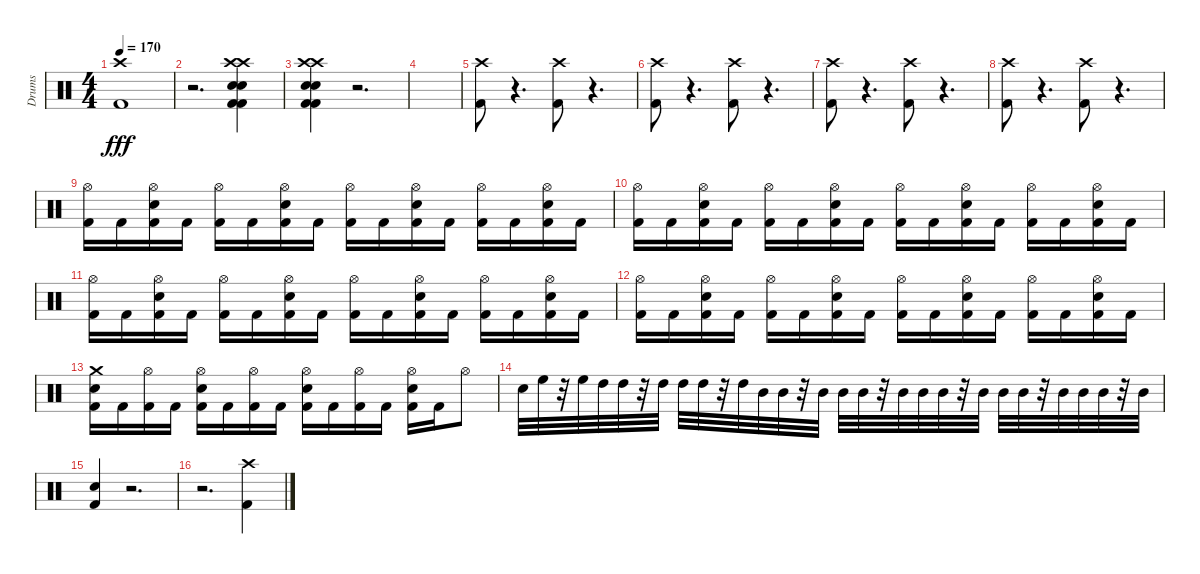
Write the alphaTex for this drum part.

\track ("Drums" "Drums") {instrument percussion}
\staff {score}
\articulation defaults
\ts (4 4)
\tempo 170
\clef neutral
\ks c
("Crash high (hit)" "Kick (hit) 2").1{dy fff} |
r.2{d} ("Crash high (hit)" "Crash high (hit)" "Snare (hit) 2" "Snare (hit) 2" "Kick (hit) 2" "Kick (hit) 2").4 |
("Crash high (hit)" "Crash high (hit)" "Snare (hit) 2" "Snare (hit) 2" "Kick (hit) 2" "Kick (hit) 2").4 r.2{d} |
|
("Crash high (hit)" "Kick (hit) 2").8 r.4{d} ("Crash high (hit)" "Kick (hit) 2").8 r.4{d} |
("Crash high (hit)" "Kick (hit) 2").8 r.4{d} ("Crash high (hit)" "Kick (hit) 2").8 r.4{d} |
("Crash high (hit)" "Kick (hit) 2").8 r.4{d} ("Crash high (hit)" "Kick (hit) 2").8 r.4{d} |
("Crash high (hit)" "Kick (hit) 2").8 r.4{d} ("Crash high (hit)" "Kick (hit) 2").8 r.4{d} |
("Kick (hit) 2" "Hi-Hat (open)").16 "Kick (hit) 2".16 ("Snare (hit) 2" "Kick (hit) 2" "Hi-Hat (open)").16 "Kick (hit) 2".16 ("Kick (hit) 2" "Hi-Hat (open)").16 "Kick (hit) 2".16 ("Snare (hit) 2" "Kick (hit) 2" "Hi-Hat (open)").16 "Kick (hit) 2".16 ("Kick (hit) 2" "Hi-Hat (open)").16 "Kick (hit) 2".16 ("Snare (hit) 2" "Kick (hit) 2" "Hi-Hat (open)").16 "Kick (hit) 2".16 ("Kick (hit) 2" "Hi-Hat (open)").16 "Kick (hit) 2".16 ("Snare (hit) 2" "Kick (hit) 2" "Hi-Hat (open)").16 "Kick (hit) 2".16 |
("Kick (hit) 2" "Hi-Hat (open)").16 "Kick (hit) 2".16 ("Snare (hit) 2" "Kick (hit) 2" "Hi-Hat (open)").16 "Kick (hit) 2".16 ("Kick (hit) 2" "Hi-Hat (open)").16 "Kick (hit) 2".16 ("Snare (hit) 2" "Kick (hit) 2" "Hi-Hat (open)").16 "Kick (hit) 2".16 ("Kick (hit) 2" "Hi-Hat (open)").16 "Kick (hit) 2".16 ("Snare (hit) 2" "Kick (hit) 2" "Hi-Hat (open)").16 "Kick (hit) 2".16 ("Kick (hit) 2" "Hi-Hat (open)").16 "Kick (hit) 2".16 ("Snare (hit) 2" "Kick (hit) 2" "Hi-Hat (open)").16 "Kick (hit) 2".16 |
("Kick (hit) 2" "Hi-Hat (open)").16 "Kick (hit) 2".16 ("Snare (hit) 2" "Kick (hit) 2" "Hi-Hat (open)").16 "Kick (hit) 2".16 ("Kick (hit) 2" "Hi-Hat (open)").16 "Kick (hit) 2".16 ("Snare (hit) 2" "Kick (hit) 2" "Hi-Hat (open)").16 "Kick (hit) 2".16 ("Kick (hit) 2" "Hi-Hat (open)").16 "Kick (hit) 2".16 ("Snare (hit) 2" "Kick (hit) 2" "Hi-Hat (open)").16 "Kick (hit) 2".16 ("Kick (hit) 2" "Hi-Hat (open)").16 "Kick (hit) 2".16 ("Snare (hit) 2" "Kick (hit) 2" "Hi-Hat (open)").16 "Kick (hit) 2".16 |
("Kick (hit) 2" "Hi-Hat (open)").16 "Kick (hit) 2".16 ("Snare (hit) 2" "Kick (hit) 2" "Hi-Hat (open)").16 "Kick (hit) 2".16 ("Kick (hit) 2" "Hi-Hat (open)").16 "Kick (hit) 2".16 ("Snare (hit) 2" "Kick (hit) 2" "Hi-Hat (open)").16 "Kick (hit) 2".16 ("Kick (hit) 2" "Hi-Hat (open)").16 "Kick (hit) 2".16 ("Snare (hit) 2" "Kick (hit) 2" "Hi-Hat (open)").16 "Kick (hit) 2".16 ("Kick (hit) 2" "Hi-Hat (open)").16 "Kick (hit) 2".16 ("Snare (hit) 2" "Kick (hit) 2" "Hi-Hat (open)").16 "Kick (hit) 2".16 |
("Kick (hit) 2" "Snare (hit) 2" "Crash medium (hit)").16 "Kick (hit) 2".16 ("Kick (hit) 2" "Hi-Hat (open)").16 "Kick (hit) 2".16 ("Kick (hit) 2" "Snare (hit) 2" "Hi-Hat (open)").16 "Kick (hit) 2".16 ("Kick (hit) 2" "Hi-Hat (open)").16 "Kick (hit) 2".16 ("Kick (hit) 2" "Snare (hit) 2" "Hi-Hat (open)").16 "Kick (hit) 2".16 ("Kick (hit) 2" "Hi-Hat (open)").16 "Kick (hit) 2".16 ("Kick (hit) 2" "Snare (hit) 2" "Hi-Hat (open)").16 "Kick (hit) 2".16 "Hi-Hat (open)".8 |
"Snare (hit) 2".32 "High Floor Tom (hit)".32 r.32 "High Floor Tom (hit)".32 "High Tom (hit)".32 "High Tom (hit)".32 r.32 "High Tom (hit)".32 "High Tom (hit)".32 "High Tom (hit)".32 r.32 "High Tom (hit)".32 "Mid Tom (hit)".32 "Mid Tom (hit)".32 r.32 "Mid Tom (hit)".32 "Mid Tom (hit)".32 "Mid Tom (hit)".32 r.32 "Mid Tom (hit)".32 "Mid Tom (hit)".32 "Mid Tom (hit)".32 r.32 "Mid Tom (hit)".32 "Mid Tom (hit)".32 "Mid Tom (hit)".32 r.32 "Mid Tom (hit)".32 "Mid Tom (hit)".32 "Mid Tom (hit)".32 r.32 "Mid Tom (hit)".32 |
("Snare (hit) 2" "Kick (hit) 2").4 r.2{d} |
r.2{d} ("Crash high (hit)" "Kick (hit) 2").4
